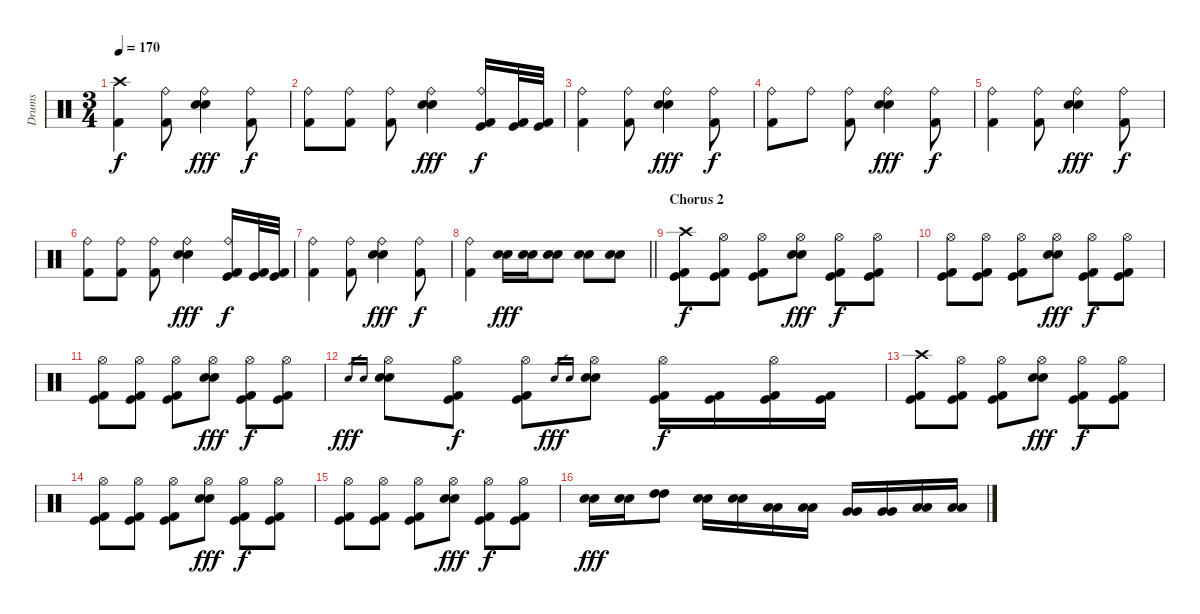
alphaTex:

\track ("Drums" "Drums") {instrument percussion}
\staff {score}
\articulation defaults
\ts (3 4)
\tempo 170
\clef neutral
\ks c
("Crash high (hit)" "Kick (hit) 2").4{dy f} ("Ride (bell)" "Kick (hit) 2").8 ("Ride (bell)" "Electric Snare (hit)" "Electric Snare (hit)").4{dy fff} ("Ride (bell)" "Kick (hit) 2").8{dy f} |
("Ride (bell)" "Kick (hit) 2").8 ("Ride (bell)" "Kick (hit) 2").8 ("Ride (bell)" "Kick (hit) 2").8 ("Ride (bell)" "Electric Snare (hit)" "Electric Snare (hit)").4{dy fff} ("Ride (bell)" "Kick (hit)" "Kick (hit) 2").16{dy f} ("Kick (hit)" "Kick (hit) 2").32 ("Kick (hit)" "Kick (hit) 2").32 |
("Ride (bell)" "Kick (hit) 2").4 ("Ride (bell)" "Kick (hit) 2").8 ("Ride (bell)" "Electric Snare (hit)" "Electric Snare (hit)").4{dy fff} ("Ride (bell)" "Kick (hit) 2").8{dy f} |
("Ride (bell)" "Kick (hit) 2").8 "Ride (bell)".8 ("Ride (bell)" "Kick (hit) 2").8 ("Ride (bell)" "Electric Snare (hit)" "Electric Snare (hit)").4{dy fff} ("Ride (bell)" "Kick (hit) 2").8{dy f} |
("Ride (bell)" "Kick (hit) 2").4 ("Ride (bell)" "Kick (hit) 2").8 ("Ride (bell)" "Electric Snare (hit)" "Electric Snare (hit)").4{dy fff} ("Ride (bell)" "Kick (hit) 2").8{dy f} |
("Ride (bell)" "Kick (hit) 2").8 ("Ride (bell)" "Kick (hit) 2").8 ("Ride (bell)" "Kick (hit) 2").8 ("Ride (bell)" "Electric Snare (hit)" "Electric Snare (hit)").4{dy fff} ("Ride (bell)" "Kick (hit)" "Kick (hit) 2").16{dy f} ("Kick (hit)" "Kick (hit) 2").32 ("Kick (hit)" "Kick (hit) 2").32 |
("Ride (bell)" "Kick (hit) 2").4 ("Ride (bell)" "Kick (hit) 2").8 ("Ride (bell)" "Electric Snare (hit)" "Electric Snare (hit)").4{dy fff} ("Ride (bell)" "Kick (hit) 2").8{dy f} |
\barLineRight lightlight
("Ride (bell)" "Kick (hit) 2").4 ("Electric Snare (hit)" "Electric Snare (hit)").16{dy fff} ("Electric Snare (hit)" "Electric Snare (hit)").16 ("Electric Snare (hit)" "Electric Snare (hit)").8 ("Electric Snare (hit)" "Electric Snare (hit)").8 ("Electric Snare (hit)" "Electric Snare (hit)").8 |
\section ("" "Chorus 2")
("Crash high (hit)" "Kick (hit)" "Kick (hit) 2").8{dy f} ("Hi-Hat (open)" "Kick (hit)" "Kick (hit) 2").8 ("Hi-Hat (open)" "Kick (hit)" "Kick (hit) 2").8 ("Hi-Hat (open)" "Electric Snare (hit)" "Electric Snare (hit)").8{dy fff} ("Hi-Hat (open)" "Kick (hit)" "Kick (hit) 2").8{dy f} ("Hi-Hat (open)" "Kick (hit)" "Kick (hit) 2").8 |
("Hi-Hat (open)" "Kick (hit)" "Kick (hit) 2").8 ("Hi-Hat (open)" "Kick (hit)" "Kick (hit) 2").8 ("Hi-Hat (open)" "Kick (hit)" "Kick (hit) 2").8 ("Hi-Hat (open)" "Electric Snare (hit)" "Electric Snare (hit)").8{dy fff} ("Hi-Hat (open)" "Kick (hit)" "Kick (hit) 2").8{dy f} ("Hi-Hat (open)" "Kick (hit)" "Kick (hit) 2").8 |
("Hi-Hat (open)" "Kick (hit)" "Kick (hit) 2").8 ("Hi-Hat (open)" "Kick (hit)" "Kick (hit) 2").8 ("Hi-Hat (open)" "Kick (hit)" "Kick (hit) 2").8 ("Hi-Hat (open)" "Electric Snare (hit)" "Electric Snare (hit)").8{dy fff} ("Hi-Hat (open)" "Kick (hit)" "Kick (hit) 2").8{dy f} ("Hi-Hat (open)" "Kick (hit)" "Kick (hit) 2").8 |
"Electric Snare (hit)".16{gr dy fff} "Electric Snare (hit)".16{gr} ("Hi-Hat (open)" "Electric Snare (hit)" "Electric Snare (hit)").8 ("Hi-Hat (open)" "Kick (hit)" "Kick (hit) 2").8{dy f} ("Hi-Hat (open)" "Kick (hit)" "Kick (hit) 2").8 "Electric Snare (hit)".16{gr dy fff} "Electric Snare (hit)".16{gr} ("Hi-Hat (open)" "Electric Snare (hit)" "Electric Snare (hit)").8 ("Hi-Hat (open)" "Kick (hit)" "Kick (hit) 2").16{dy f} ("Kick (hit)" "Kick (hit) 2").16 ("Hi-Hat (open)" "Kick (hit)" "Kick (hit) 2").16 ("Kick (hit)" "Kick (hit) 2").16 |
("Crash high (hit)" "Kick (hit)" "Kick (hit) 2").8 ("Hi-Hat (open)" "Kick (hit)" "Kick (hit) 2").8 ("Hi-Hat (open)" "Kick (hit)" "Kick (hit) 2").8 ("Hi-Hat (open)" "Electric Snare (hit)" "Electric Snare (hit)").8{dy fff} ("Hi-Hat (open)" "Kick (hit)" "Kick (hit) 2").8{dy f} ("Hi-Hat (open)" "Kick (hit)" "Kick (hit) 2").8 |
("Hi-Hat (open)" "Kick (hit)" "Kick (hit) 2").8 ("Hi-Hat (open)" "Kick (hit)" "Kick (hit) 2").8 ("Hi-Hat (open)" "Kick (hit)" "Kick (hit) 2").8 ("Hi-Hat (open)" "Electric Snare (hit)" "Electric Snare (hit)").8{dy fff} ("Hi-Hat (open)" "Kick (hit)" "Kick (hit) 2").8{dy f} ("Hi-Hat (open)" "Kick (hit)" "Kick (hit) 2").8 |
("Hi-Hat (open)" "Kick (hit)" "Kick (hit) 2").8 ("Hi-Hat (open)" "Kick (hit)" "Kick (hit) 2").8 ("Hi-Hat (open)" "Kick (hit)" "Kick (hit) 2").8 ("Hi-Hat (open)" "Electric Snare (hit)" "Electric Snare (hit)").8{dy fff} ("Hi-Hat (open)" "Kick (hit)" "Kick (hit) 2").8{dy f} ("Hi-Hat (open)" "Kick (hit)" "Kick (hit) 2").8 |
("Electric Snare (hit)" "Electric Snare (hit)").16{dy fff} ("Electric Snare (hit)" "Electric Snare (hit)").16 ("High Tom (hit)" "High Tom (hit)").8 ("Electric Snare (hit)" "Electric Snare (hit)").16 ("Electric Snare (hit)" "Electric Snare (hit)").16 ("Low Tom (hit)" "Low Tom (hit)").16 ("Low Tom (hit)" "Low Tom (hit)").16 ("Very Low Tom (hit)" "Very Low Tom (hit)").16 ("Very Low Tom (hit)" "Very Low Tom (hit)").16 ("Low Floor Tom (hit)" "Low Floor Tom (hit)").16 ("Low Floor Tom (hit)" "Low Floor Tom (hit)").16
